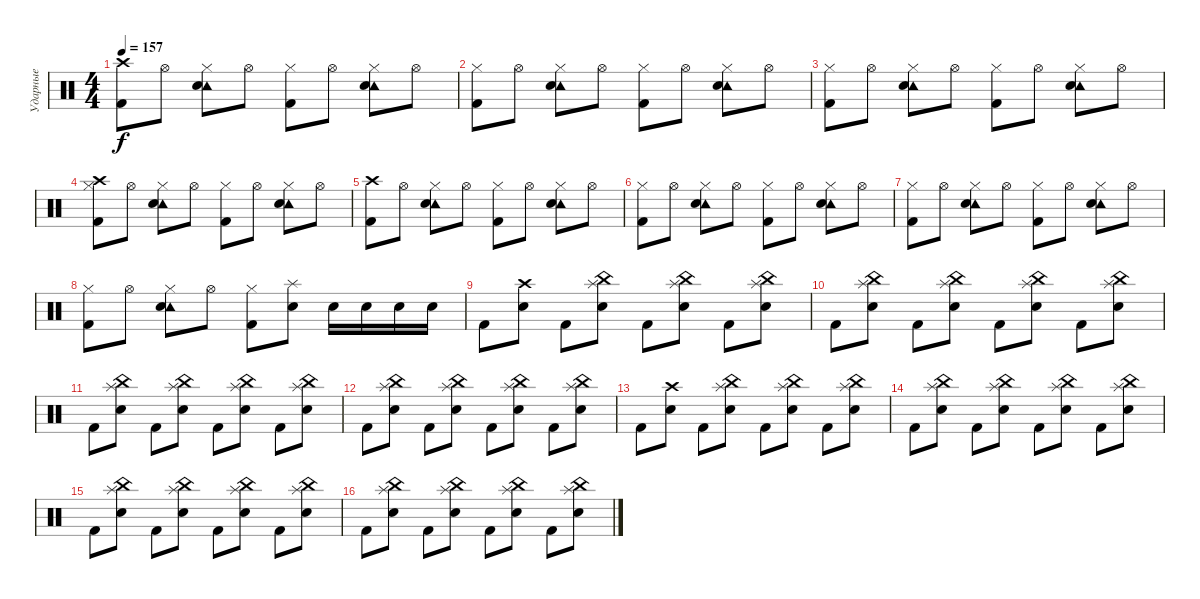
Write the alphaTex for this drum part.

\track ("Ударные" "Ударные") {instrument percussion}
\staff {score}
\articulation defaults
\ts (4 4)
\tempo 157
\clef neutral
\ks c
("Crash high (hit)" "Kick (hit) 2").8{dy f} "Hi-Hat (open)".8 ("Tambourine (hit)" "Electric Snare (hit)" "Hi-Hat (closed)").8 "Hi-Hat (open)".8 ("Hi-Hat (closed)" "Kick (hit) 2").8 "Hi-Hat (open)".8 ("Tambourine (hit)" "Electric Snare (hit)" "Hi-Hat (closed)").8 "Hi-Hat (open)".8 |
("Hi-Hat (closed)" "Kick (hit) 2").8 "Hi-Hat (open)".8 ("Tambourine (hit)" "Electric Snare (hit)" "Hi-Hat (closed)").8 "Hi-Hat (open)".8 ("Hi-Hat (closed)" "Kick (hit) 2").8 "Hi-Hat (open)".8 ("Tambourine (hit)" "Electric Snare (hit)" "Hi-Hat (closed)").8 "Hi-Hat (open)".8 |
("Hi-Hat (closed)" "Kick (hit) 2").8 "Hi-Hat (open)".8 ("Tambourine (hit)" "Electric Snare (hit)" "Hi-Hat (closed)").8 "Hi-Hat (open)".8 ("Hi-Hat (closed)" "Kick (hit) 2").8 "Hi-Hat (open)".8 ("Tambourine (hit)" "Electric Snare (hit)" "Hi-Hat (closed)").8 "Hi-Hat (open)".8 |
("Crash high (hit)" "Hi-Hat (closed)" "Kick (hit) 2").8 "Hi-Hat (open)".8 ("Tambourine (hit)" "Electric Snare (hit)" "Hi-Hat (closed)").8 "Hi-Hat (open)".8 ("Hi-Hat (closed)" "Kick (hit) 2").8 "Hi-Hat (open)".8 ("Tambourine (hit)" "Electric Snare (hit)" "Hi-Hat (closed)").8 "Hi-Hat (open)".8 |
("Crash high (hit)" "Kick (hit) 2").8 "Hi-Hat (open)".8 ("Tambourine (hit)" "Electric Snare (hit)" "Hi-Hat (closed)").8 "Hi-Hat (open)".8 ("Hi-Hat (closed)" "Kick (hit) 2").8 "Hi-Hat (open)".8 ("Tambourine (hit)" "Electric Snare (hit)" "Hi-Hat (closed)").8 "Hi-Hat (open)".8 |
("Hi-Hat (closed)" "Kick (hit) 2").8 "Hi-Hat (open)".8 ("Tambourine (hit)" "Electric Snare (hit)" "Hi-Hat (closed)").8 "Hi-Hat (open)".8 ("Hi-Hat (closed)" "Kick (hit) 2").8 "Hi-Hat (open)".8 ("Tambourine (hit)" "Electric Snare (hit)" "Hi-Hat (closed)").8 "Hi-Hat (open)".8 |
("Hi-Hat (closed)" "Kick (hit) 2").8 "Hi-Hat (open)".8 ("Tambourine (hit)" "Electric Snare (hit)" "Hi-Hat (closed)").8 "Hi-Hat (open)".8 ("Hi-Hat (closed)" "Kick (hit) 2").8 "Hi-Hat (open)".8 ("Tambourine (hit)" "Electric Snare (hit)" "Hi-Hat (closed)").8 "Hi-Hat (open)".8 |
("Hi-Hat (closed)" "Kick (hit) 2").8 "Hi-Hat (open)".8 ("Tambourine (hit)" "Electric Snare (hit)" "Hi-Hat (closed)").8 "Hi-Hat (open)".8 ("Hi-Hat (closed)" "Kick (hit) 2").8 ("Splash (hit)" "Electric Snare (hit)").8 "Electric Snare (hit)".16 "Electric Snare (hit)".16 "Electric Snare (hit)".16 "Electric Snare (hit)".16 |
"Kick (hit) 2".8 ("Crash high (hit)" "Electric Snare (hit)").8 "Kick (hit) 2".8 ("Splash (hit)" "China (hit)" "Electric Snare (hit)").8 "Kick (hit) 2".8 ("Splash (hit)" "China (hit)" "Electric Snare (hit)").8 "Kick (hit) 2".8 ("Splash (hit)" "China (hit)" "Electric Snare (hit)").8 |
"Kick (hit) 2".8 ("Splash (hit)" "China (hit)" "Electric Snare (hit)").8 "Kick (hit) 2".8 ("Splash (hit)" "China (hit)" "Electric Snare (hit)").8 "Kick (hit) 2".8 ("Splash (hit)" "China (hit)" "Electric Snare (hit)").8 "Kick (hit) 2".8 ("Splash (hit)" "China (hit)" "Electric Snare (hit)").8 |
"Kick (hit) 2".8 ("Splash (hit)" "China (hit)" "Electric Snare (hit)").8 "Kick (hit) 2".8 ("Splash (hit)" "China (hit)" "Electric Snare (hit)").8 "Kick (hit) 2".8 ("Splash (hit)" "China (hit)" "Electric Snare (hit)").8 "Kick (hit) 2".8 ("Splash (hit)" "China (hit)" "Electric Snare (hit)").8 |
"Kick (hit) 2".8 ("Splash (hit)" "China (hit)" "Electric Snare (hit)").8 "Kick (hit) 2".8 ("Splash (hit)" "China (hit)" "Electric Snare (hit)").8 "Kick (hit) 2".8 ("Splash (hit)" "China (hit)" "Electric Snare (hit)").8 "Kick (hit) 2".8 ("Splash (hit)" "China (hit)" "Electric Snare (hit)").8 |
"Kick (hit) 2".8 ("Crash high (hit)" "Electric Snare (hit)").8 "Kick (hit) 2".8 ("Splash (hit)" "China (hit)" "Electric Snare (hit)").8 "Kick (hit) 2".8 ("Splash (hit)" "China (hit)" "Electric Snare (hit)").8 "Kick (hit) 2".8 ("Splash (hit)" "China (hit)" "Electric Snare (hit)").8 |
"Kick (hit) 2".8 ("Splash (hit)" "China (hit)" "Electric Snare (hit)").8 "Kick (hit) 2".8 ("Splash (hit)" "China (hit)" "Electric Snare (hit)").8 "Kick (hit) 2".8 ("Splash (hit)" "China (hit)" "Electric Snare (hit)").8 "Kick (hit) 2".8 ("Splash (hit)" "China (hit)" "Electric Snare (hit)").8 |
"Kick (hit) 2".8 ("Splash (hit)" "China (hit)" "Electric Snare (hit)").8 "Kick (hit) 2".8 ("Splash (hit)" "China (hit)" "Electric Snare (hit)").8 "Kick (hit) 2".8 ("Splash (hit)" "China (hit)" "Electric Snare (hit)").8 "Kick (hit) 2".8 ("Splash (hit)" "China (hit)" "Electric Snare (hit)").8 |
"Kick (hit) 2".8 ("Splash (hit)" "China (hit)" "Electric Snare (hit)").8 "Kick (hit) 2".8 ("Splash (hit)" "China (hit)" "Electric Snare (hit)").8 "Kick (hit) 2".8 ("Splash (hit)" "China (hit)" "Electric Snare (hit)").8 "Kick (hit) 2".8 ("Splash (hit)" "China (hit)" "Electric Snare (hit)").8
